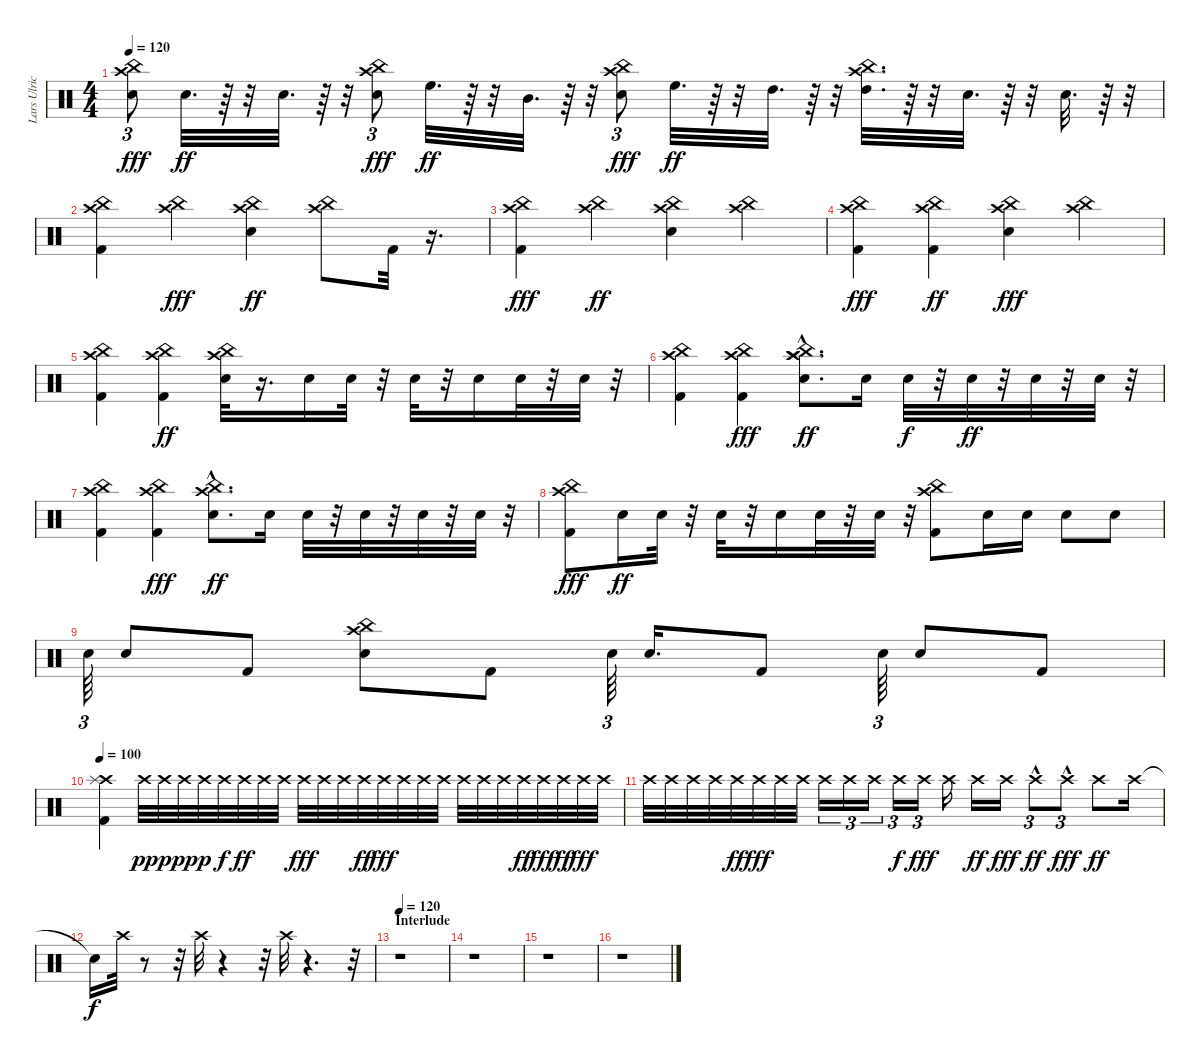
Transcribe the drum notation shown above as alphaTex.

\track ("Lars Ulrich" "Lars Ulric") {instrument percussion}
\staff {score}
\articulation defaults
\ts (4 4)
\tempo 120
\clef neutral
\ks c
("Snare (hit) 2" "China (hit)" "Crash high (hit)").8{tu (3 2) dy fff} "Snare (hit) 2".32{d dy ff} r.64 r.32 "Snare (hit) 2".32{d} r.64 r.32 ("Snare (hit) 2" "China (hit)" "Crash high (hit)").8{tu (3 2) dy fff} "High Floor Tom (hit)".32{d dy ff} r.64 r.32 "Mid Tom (hit)".32{d} r.64 r.32 ("Snare (hit) 2" "China (hit)" "Crash high (hit)").8{tu (3 2) dy fff} "High Floor Tom (hit)".32{d dy ff} r.64 r.32 "High Tom (hit)".32{d} r.64 r.32 ("High Tom (hit)" "Crash high (hit)" "China (hit)").32{d} r.64 r.32 "Snare (hit) 2".32{d} r.64 r.32 "Snare (hit) 2".32{d} r.64 r.32 |
("Kick (hit) 2" "China (hit)" "Crash high (hit)").4 ("China (hit)" "Crash high (hit)").4{dy fff} ("Snare (hit) 2" "China (hit)" "Crash high (hit)").4{dy ff} ("China (hit)" "Crash high (hit)").8 "Kick (hit) 2".32 r.16{d} |
("Kick (hit) 2" "China (hit)" "Crash high (hit)").4{dy fff} ("China (hit)" "Crash high (hit)").4{dy ff} ("China (hit)" "Snare (hit) 2" "Crash high (hit)").4 ("China (hit)" "Crash high (hit)").4 |
("Kick (hit) 2" "China (hit)" "Crash high (hit)").4{dy fff} ("Kick (hit) 2" "China (hit)" "Crash high (hit)").4{dy ff} ("China (hit)" "Snare (hit) 2" "Crash high (hit)").4{dy fff} ("China (hit)" "Crash high (hit)").4 |
("Kick (hit) 2" "China (hit)" "Crash high (hit)").4 ("Kick (hit) 2" "China (hit)" "Crash high (hit)").4{dy ff} ("China (hit)" "Crash high (hit)" "Snare (hit) 2").32 r.16{d} "Snare (hit) 2".16 "Snare (hit) 2".32 r.32 "Snare (hit) 2".32 r.32 "Snare (hit) 2".16 "Snare (hit) 2".32 r.32 "Snare (hit) 2".32 r.32 |
("Kick (hit) 2" "China (hit)" "Crash high (hit)").4 ("Kick (hit) 2" "China (hit)" "Crash high (hit)").4{dy fff} ("Crash high (hit)" "China (hit)" "Crash high (hit)" "Snare (hit) 2"{hac}).8{d dy ff} "Snare (hit) 2".16 "Snare (hit) 2".32{dy f} r.32 "Snare (hit) 2".32{dy ff} r.32 "Snare (hit) 2".32 r.32 "Snare (hit) 2".32 r.32 |
("Kick (hit) 2" "China (hit)" "Crash high (hit)").4 ("Kick (hit) 2" "China (hit)" "Crash high (hit)").4{dy fff} ("China (hit)" "Crash high (hit)" "Snare (hit) 2"{hac}).8{d dy ff} "Snare (hit) 2".16 "Snare (hit) 2".32 r.32 "Snare (hit) 2".32 r.32 "Snare (hit) 2".32 r.32 "Snare (hit) 2".32 r.32 |
("Kick (hit) 2" "China (hit)" "Crash high (hit)").8{dy fff} "Snare (hit) 2".16{dy ff} "Snare (hit) 2".32 r.32 "Snare (hit) 2".32 r.32 "Snare (hit) 2".16 "Snare (hit) 2".32 r.32 "Snare (hit) 2".32 r.32 ("Kick (hit) 2" "China (hit)" "Crash high (hit)").8 "Snare (hit) 2".16 "Snare (hit) 2".16 "Snare (hit) 2".8 "Snare (hit) 2".8 |
"Snare (hit) 2".64{tu (3 2)} "Snare (hit) 2".8 "Kick (hit) 2".8 ("China (hit)" "Crash high (hit)" "Snare (hit) 2").8 "Kick (hit) 2".8 "Snare (hit) 2".64{tu (3 2)} "Snare (hit) 2".16{d} "Kick (hit) 2".8 "Snare (hit) 2".64{tu (3 2)} "Snare (hit) 2".8 "Kick (hit) 2".8 |
\tempo 100
("Crash high (hit)" "Splash (hit)" "Kick (hit) 2").4 "Crash high (hit)".32{dy pp volume 2} "Crash high (hit)".32{dy p volume 2} "Crash high (hit)".32{dy pp volume 3} "Crash high (hit)".32{dy p volume 3} "Crash high (hit)".32{dy f volume 4} "Crash high (hit)".32{dy ff volume 4} "Crash high (hit)".32{volume 4} "Crash high (hit)".32{volume 4} "Crash high (hit)".32{dy fff volume 5} "Crash high (hit)".32{volume 5} "Crash high (hit)".32{volume 6} "Crash high (hit)".32{dy ff volume 6} "Crash high (hit)".32{dy fff volume 6} "Crash high (hit)".32{volume 6} "Crash high (hit)".32{volume 7} "Crash high (hit)".32{volume 7} "Crash high (hit)".32{volume 8} "Crash high (hit)".32{volume 8} "Crash high (hit)".32{volume 8} "Crash high (hit)".32{dy ff volume 8} "Crash high (hit)".32{dy fff volume 9} "Crash high (hit)".32{dy ff volume 9} "Crash high (hit)".32{dy fff volume 10} "Crash high (hit)".32{volume 10} |
"Crash high (hit)".32{volume 10} "Crash high (hit)".32{volume 11} "Crash high (hit)".32{volume 11} "Crash high (hit)".32{volume 11} "Crash high (hit)".32{dy ff volume 12} "Crash high (hit)".32{dy fff volume 12} "Crash high (hit)".32{volume 12} "Crash high (hit)".32{volume 13} "Crash high (hit)".16{tu (3 2) volume 13} "Crash high (hit)".16{tu (3 2) volume 13} "Crash high (hit)".16{tu (3 2) volume 14} "Crash high (hit)".16{tu (3 2) dy f volume 14} "Crash high (hit)".16{tu (3 2) dy fff volume 15} "Crash high (hit)".16{volume 15} "Crash high (hit)".16{dy ff volume 16} "Crash high (hit)".16{dy fff} "Crash high (hit)"{hac}.8{tu (3 2) dy ff} "Crash high (hit)"{hac}.8{tu (3 2) dy fff} "Crash high (hit)".8{dy ff} "Crash high (hit)".16 |
"Snare (hit)"{t}.16{dy f} "Crash high (hit)".32 r.8 r.32 "Crash high (hit)".32 r.4 r.32 "Crash high (hit)".32 r.4{d} r.32 |
\section ("" "Interlude")
\tempo 120
r.1 |
r.1 |
r.1 |
r.1
